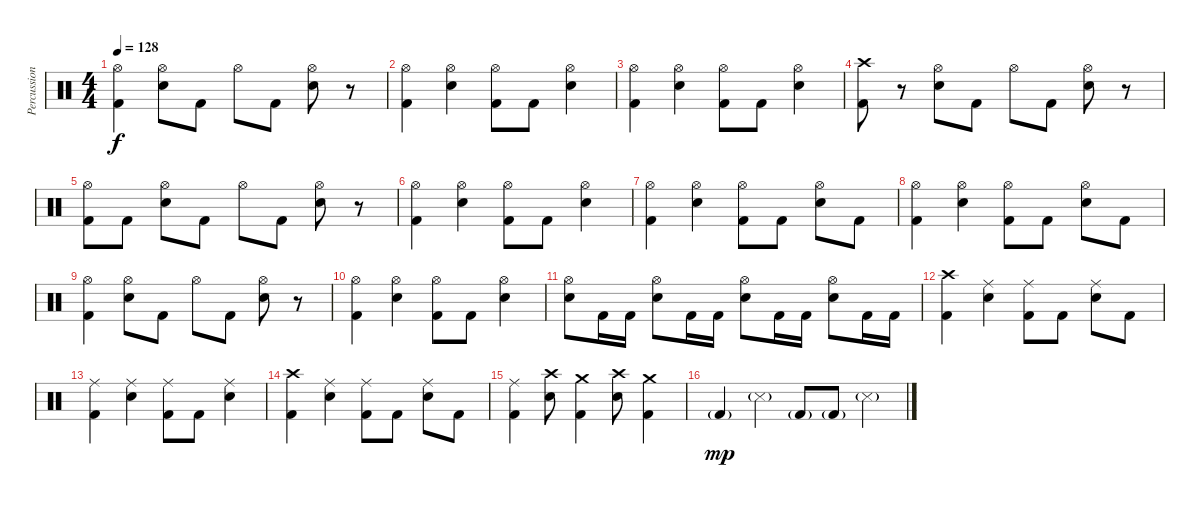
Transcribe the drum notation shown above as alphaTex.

\track ("Percussion" "Percussion") {instrument percussion}
\staff {score}
\articulation defaults
\ts (4 4)
\tempo 128
\clef neutral
\ks c
("Hi-Hat (open)" "Kick (hit) 2").4{dy f} ("Hi-Hat (open)" "Snare (hit) 2").8 "Kick (hit) 2".8 "Hi-Hat (open)".8 "Kick (hit) 2".8 ("Hi-Hat (open)" "Snare (hit) 2").8 r.8 |
("Hi-Hat (open)" "Kick (hit) 2").4 ("Hi-Hat (open)" "Snare (hit) 2").4 ("Hi-Hat (open)" "Kick (hit) 2").8 "Kick (hit) 2".8 ("Hi-Hat (open)" "Snare (hit) 2").4 |
("Hi-Hat (open)" "Kick (hit) 2").4 ("Hi-Hat (open)" "Snare (hit) 2").4 ("Hi-Hat (open)" "Kick (hit) 2").8 "Kick (hit) 2".8 ("Hi-Hat (open)" "Snare (hit) 2").4 |
("Crash high (hit)" "Kick (hit) 2").8 r.8 ("Hi-Hat (open)" "Snare (hit) 2").8 "Kick (hit) 2".8 "Hi-Hat (open)".8 "Kick (hit) 2".8 ("Hi-Hat (open)" "Snare (hit) 2").8 r.8 |
("Hi-Hat (open)" "Kick (hit) 2").8 "Kick (hit) 2".8 ("Hi-Hat (open)" "Snare (hit) 2").8 "Kick (hit) 2".8 "Hi-Hat (open)".8 "Kick (hit) 2".8 ("Hi-Hat (open)" "Snare (hit) 2").8 r.8 |
("Hi-Hat (open)" "Kick (hit) 2").4 ("Hi-Hat (open)" "Snare (hit) 2").4 ("Hi-Hat (open)" "Kick (hit) 2").8 "Kick (hit) 2".8 ("Hi-Hat (open)" "Snare (hit) 2").4 |
("Hi-Hat (open)" "Kick (hit) 2").4 ("Hi-Hat (open)" "Snare (hit) 2").4 ("Hi-Hat (open)" "Kick (hit) 2").8 "Kick (hit) 2".8 ("Hi-Hat (open)" "Snare (hit) 2").8 "Kick (hit) 2".8 |
("Hi-Hat (open)" "Kick (hit) 2").4 ("Hi-Hat (open)" "Snare (hit) 2").4 ("Hi-Hat (open)" "Kick (hit) 2").8 "Kick (hit) 2".8 ("Hi-Hat (open)" "Snare (hit) 2").8 "Kick (hit) 2".8 |
("Hi-Hat (open)" "Kick (hit) 2").4 ("Hi-Hat (open)" "Snare (hit) 2").8 "Kick (hit) 2".8 "Hi-Hat (open)".8 "Kick (hit) 2".8 ("Hi-Hat (open)" "Snare (hit) 2").8 r.8 |
("Hi-Hat (open)" "Kick (hit) 2").4 ("Hi-Hat (open)" "Snare (hit) 2").4 ("Hi-Hat (open)" "Kick (hit) 2").8 "Kick (hit) 2".8 ("Hi-Hat (open)" "Snare (hit) 2").4 |
("Hi-Hat (open)" "Snare (hit) 2").8 "Kick (hit) 2".16 "Kick (hit) 2".16 ("Hi-Hat (open)" "Snare (hit) 2").8 "Kick (hit) 2".16 "Kick (hit) 2".16 ("Hi-Hat (open)" "Snare (hit) 2").8 "Kick (hit) 2".16 "Kick (hit) 2".16 ("Hi-Hat (open)" "Snare (hit) 2").8 "Kick (hit) 2".16 "Kick (hit) 2".16 |
("Crash high (hit)" "Kick (hit) 2").4 ("Ride (middle)" "Snare (hit) 2").4 ("Ride (middle)" "Kick (hit) 2").8 "Kick (hit) 2".8 ("Ride (middle)" "Snare (hit) 2").8 "Kick (hit) 2".8 |
("Ride (middle)" "Kick (hit) 2").4 ("Ride (middle)" "Snare (hit) 2").4 ("Ride (middle)" "Kick (hit) 2").8 "Kick (hit) 2".8 ("Ride (middle)" "Snare (hit) 2").4 |
("Crash high (hit)" "Kick (hit) 2").4 ("Ride (middle)" "Snare (hit) 2").4 ("Ride (middle)" "Kick (hit) 2").8 "Kick (hit) 2".8 ("Ride (middle)" "Snare (hit) 2").8 "Kick (hit) 2".8 |
("Ride (middle)" "Kick (hit) 2").4 ("Crash high (hit)" "Snare (hit) 2").8 ("Crash medium (hit)" "Kick (hit) 2").4 ("Crash high (hit)" "Snare (hit) 2").8 ("Crash medium (hit)" "Kick (hit) 2").4 |
"Kick (hit) 2"{g}.4{dy mp} "Snare (side stick) 3"{g}.4 "Kick (hit) 2"{g}.8 "Kick (hit) 2"{g}.8 "Snare (side stick) 3"{g}.4
